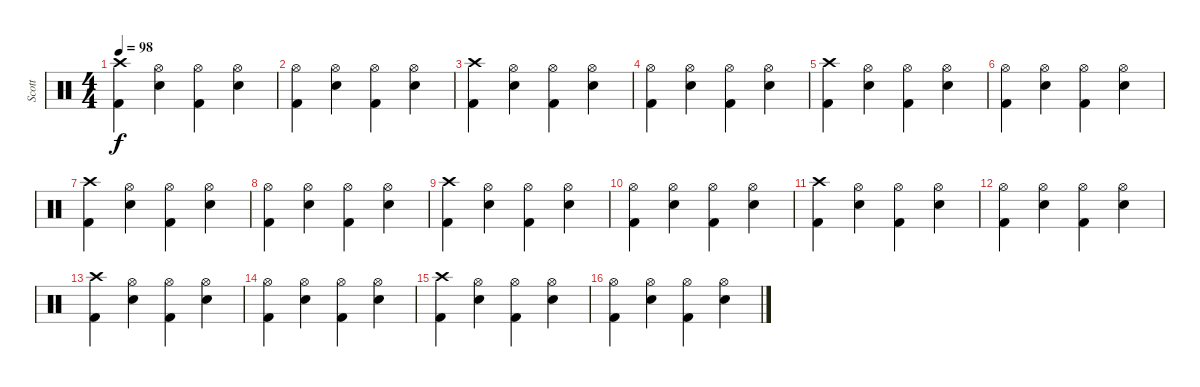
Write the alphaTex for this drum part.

\track ("Scott" "Scott") {instrument percussion}
\staff {score}
\articulation defaults
\ts (4 4)
\tempo 98
\clef neutral
\ks c
("Crash high (hit)" "Kick (hit) 2").4{dy f} ("Hi-Hat (open)" "Snare (hit) 2").4 ("Hi-Hat (open)" "Kick (hit) 2").4 ("Hi-Hat (open)" "Snare (hit) 2").4 |
("Hi-Hat (open)" "Kick (hit) 2").4 ("Hi-Hat (open)" "Snare (hit) 2").4 ("Hi-Hat (open)" "Kick (hit) 2").4 ("Hi-Hat (open)" "Snare (hit) 2").4 |
("Crash high (hit)" "Kick (hit) 2").4 ("Hi-Hat (open)" "Snare (hit) 2").4 ("Hi-Hat (open)" "Kick (hit) 2").4 ("Hi-Hat (open)" "Snare (hit) 2").4 |
("Hi-Hat (open)" "Kick (hit) 2").4 ("Hi-Hat (open)" "Snare (hit) 2").4 ("Hi-Hat (open)" "Kick (hit) 2").4 ("Hi-Hat (open)" "Snare (hit) 2").4 |
("Crash high (hit)" "Kick (hit) 2").4 ("Hi-Hat (open)" "Snare (hit) 2").4 ("Hi-Hat (open)" "Kick (hit) 2").4 ("Hi-Hat (open)" "Snare (hit) 2").4 |
("Hi-Hat (open)" "Kick (hit) 2").4 ("Hi-Hat (open)" "Snare (hit) 2").4 ("Hi-Hat (open)" "Kick (hit) 2").4 ("Hi-Hat (open)" "Snare (hit) 2").4 |
("Crash high (hit)" "Kick (hit) 2").4 ("Hi-Hat (open)" "Snare (hit) 2").4 ("Hi-Hat (open)" "Kick (hit) 2").4 ("Hi-Hat (open)" "Snare (hit) 2").4 |
("Hi-Hat (open)" "Kick (hit) 2").4 ("Hi-Hat (open)" "Snare (hit) 2").4 ("Hi-Hat (open)" "Kick (hit) 2").4 ("Hi-Hat (open)" "Snare (hit) 2").4 |
("Crash high (hit)" "Kick (hit) 2").4 ("Hi-Hat (open)" "Snare (hit) 2").4 ("Hi-Hat (open)" "Kick (hit) 2").4 ("Hi-Hat (open)" "Snare (hit) 2").4 |
("Hi-Hat (open)" "Kick (hit) 2").4 ("Hi-Hat (open)" "Snare (hit) 2").4 ("Hi-Hat (open)" "Kick (hit) 2").4 ("Hi-Hat (open)" "Snare (hit) 2").4 |
("Crash high (hit)" "Kick (hit) 2").4 ("Hi-Hat (open)" "Snare (hit) 2").4 ("Hi-Hat (open)" "Kick (hit) 2").4 ("Hi-Hat (open)" "Snare (hit) 2").4 |
("Hi-Hat (open)" "Kick (hit) 2").4 ("Hi-Hat (open)" "Snare (hit) 2").4 ("Hi-Hat (open)" "Kick (hit) 2").4 ("Hi-Hat (open)" "Snare (hit) 2").4 |
("Crash high (hit)" "Kick (hit) 2").4 ("Hi-Hat (open)" "Snare (hit) 2").4 ("Hi-Hat (open)" "Kick (hit) 2").4 ("Hi-Hat (open)" "Snare (hit) 2").4 |
("Hi-Hat (open)" "Kick (hit) 2").4 ("Hi-Hat (open)" "Snare (hit) 2").4 ("Hi-Hat (open)" "Kick (hit) 2").4 ("Hi-Hat (open)" "Snare (hit) 2").4 |
("Crash high (hit)" "Kick (hit) 2").4 ("Hi-Hat (open)" "Snare (hit) 2").4 ("Hi-Hat (open)" "Kick (hit) 2").4 ("Hi-Hat (open)" "Snare (hit) 2").4 |
("Hi-Hat (open)" "Kick (hit) 2").4 ("Hi-Hat (open)" "Snare (hit) 2").4 ("Hi-Hat (open)" "Kick (hit) 2").4 ("Hi-Hat (open)" "Snare (hit) 2").4
